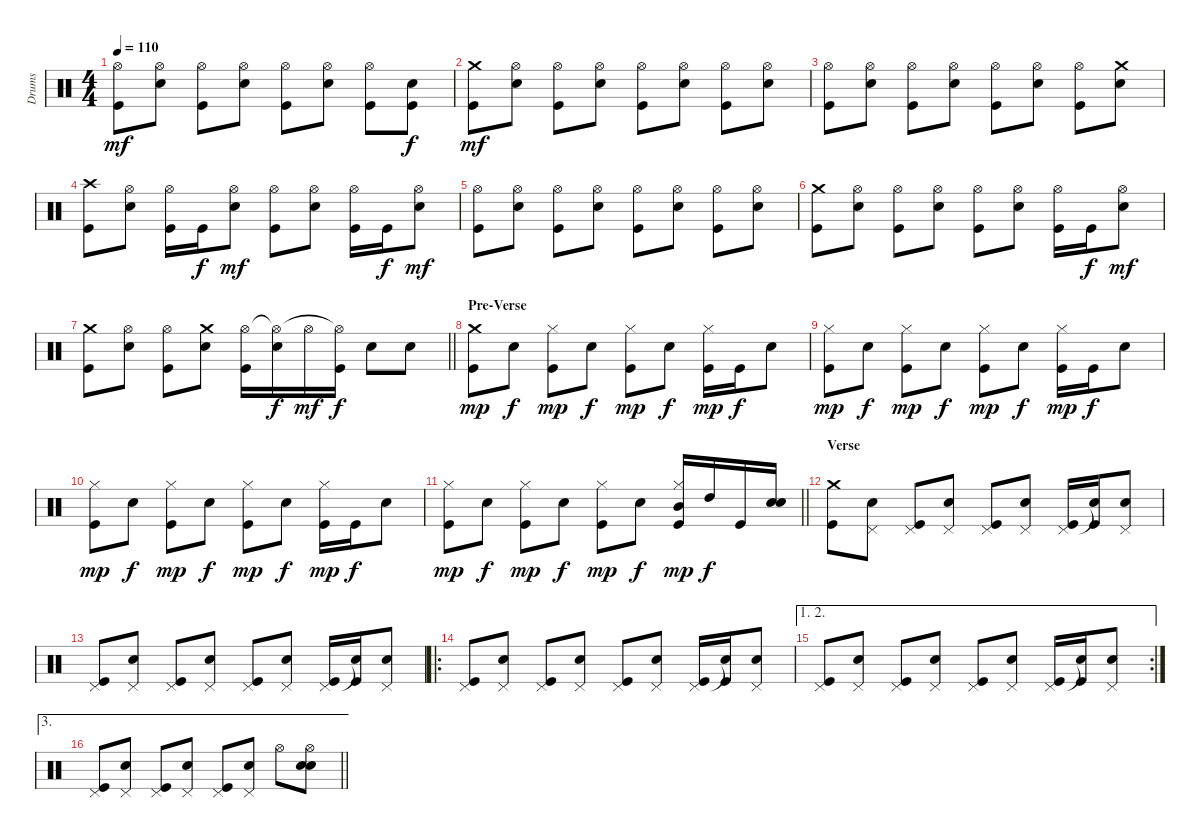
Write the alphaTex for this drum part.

\track ("Drums" "Drums") {instrument percussion}
\staff {score}
\articulation defaults
\ts (4 4)
\tempo 110
\clef neutral
\ks c
("Kick (hit)" "Hi-Hat (open)").8{dy mf} ("Electric Snare (hit)" "Hi-Hat (open)").8 ("Kick (hit)" "Hi-Hat (open)").8 ("Electric Snare (hit)" "Hi-Hat (open)").8 ("Kick (hit)" "Hi-Hat (open)").8 ("Electric Snare (hit)" "Hi-Hat (open)").8 ("Kick (hit)" "Hi-Hat (open)").8 ("Kick (hit)" "Electric Snare (hit)").8{dy f} |
("Kick (hit)" "Crash medium (hit)").8{dy mf} ("Electric Snare (hit)" "Hi-Hat (open)").8 ("Kick (hit)" "Hi-Hat (open)").8 ("Electric Snare (hit)" "Hi-Hat (open)").8 ("Kick (hit)" "Hi-Hat (open)").8 ("Electric Snare (hit)" "Hi-Hat (open)").8 ("Kick (hit)" "Hi-Hat (open)").8 ("Electric Snare (hit)" "Hi-Hat (open)").8 |
("Kick (hit)" "Hi-Hat (open)").8 ("Electric Snare (hit)" "Hi-Hat (open)").8 ("Kick (hit)" "Hi-Hat (open)").8 ("Electric Snare (hit)" "Hi-Hat (open)").8 ("Kick (hit)" "Hi-Hat (open)").8 ("Electric Snare (hit)" "Hi-Hat (open)").8 ("Kick (hit)" "Hi-Hat (open)").8 ("Electric Snare (hit)" "Crash medium (hit)").8 |
("Kick (hit)" "Crash high (hit)").8 ("Electric Snare (hit)" "Hi-Hat (open)").8 ("Kick (hit)" "Hi-Hat (open)").16 "Kick (hit)".16{dy f} ("Electric Snare (hit)" "Hi-Hat (open)").8{dy mf} ("Kick (hit)" "Hi-Hat (open)").8 ("Electric Snare (hit)" "Hi-Hat (open)").8 ("Kick (hit)" "Hi-Hat (open)").16 "Kick (hit)".16{dy f} ("Electric Snare (hit)" "Hi-Hat (open)").8{dy mf} |
("Kick (hit)" "Hi-Hat (open)").8 ("Electric Snare (hit)" "Hi-Hat (open)").8 ("Kick (hit)" "Hi-Hat (open)").8 ("Electric Snare (hit)" "Hi-Hat (open)").8 ("Kick (hit)" "Hi-Hat (open)").8 ("Electric Snare (hit)" "Hi-Hat (open)").8 ("Kick (hit)" "Hi-Hat (open)").8 ("Electric Snare (hit)" "Hi-Hat (open)").8 |
("Kick (hit)" "Crash medium (hit)").8 ("Electric Snare (hit)" "Hi-Hat (open)").8 ("Kick (hit)" "Hi-Hat (open)").8 ("Electric Snare (hit)" "Hi-Hat (open)").8 ("Kick (hit)" "Hi-Hat (open)").8 ("Electric Snare (hit)" "Hi-Hat (open)").8 ("Kick (hit)" "Hi-Hat (open)").16 "Kick (hit)".16{dy f} ("Electric Snare (hit)" "Hi-Hat (open)").8{dy mf} |
\barLineRight lightlight
("Kick (hit)" "Crash medium (hit)").8 ("Electric Snare (hit)" "Hi-Hat (open)").8 ("Kick (hit)" "Hi-Hat (open)").8 ("Electric Snare (hit)" "Crash medium (hit)").8 ("Kick (hit)" "Hi-Hat (open)").16 ("Electric Snare (hit)" "Hi-Hat (open)"{t}).16{dy f} "Hi-Hat (open)".16{dy mf} ("Kick (hit)" "Hi-Hat (open)"{t}).16{dy f} "Electric Snare (hit)".8 "Electric Snare (hit)".8 |
\section ("" "Pre-Verse")
("Kick (hit)" "Crash medium (hit)").8{dy mp} "Electric Snare (hit)".8{dy f} ("Kick (hit)" "Hi-Hat (closed)").8{dy mp} "Electric Snare (hit)".8{dy f} ("Kick (hit)" "Hi-Hat (closed)").8{dy mp} "Electric Snare (hit)".8{dy f} ("Kick (hit)" "Hi-Hat (closed)").16{dy mp} "Kick (hit)".16{dy f} "Electric Snare (hit)".8 |
("Kick (hit)" "Hi-Hat (closed)").8{dy mp} "Electric Snare (hit)".8{dy f} ("Kick (hit)" "Hi-Hat (closed)").8{dy mp} "Electric Snare (hit)".8{dy f} ("Kick (hit)" "Hi-Hat (closed)").8{dy mp} "Electric Snare (hit)".8{dy f} ("Kick (hit)" "Hi-Hat (closed)").16{dy mp} "Kick (hit)".16{dy f} "Electric Snare (hit)".8 |
("Kick (hit)" "Hi-Hat (closed)").8{dy mp} "Electric Snare (hit)".8{dy f} ("Kick (hit)" "Hi-Hat (closed)").8{dy mp} "Electric Snare (hit)".8{dy f} ("Kick (hit)" "Hi-Hat (closed)").8{dy mp} "Electric Snare (hit)".8{dy f} ("Kick (hit)" "Hi-Hat (closed)").16{dy mp} "Kick (hit)".16{dy f} "Electric Snare (hit)".8 |
\barLineRight lightlight
("Kick (hit)" "Hi-Hat (closed)").8{dy mp} "Electric Snare (hit)".8{dy f} ("Kick (hit)" "Hi-Hat (closed)").8{dy mp} "Electric Snare (hit)".8{dy f} ("Kick (hit)" "Hi-Hat (closed)").8{dy mp} "Electric Snare (hit)".8{dy f} ("Kick (hit)" "Mid Tom (hit)" "Hi-Hat (closed)").16{dy mp} "High Tom (hit)".16{dy f} "Kick (hit)".16 ("Snare (hit) 2" "Electric Snare (hit)").16 |
\section ("" "Verse")
("Kick (hit)" "Crash medium (hit)").8 ("Electric Snare (hit)" "Pedal Hi-Hat (hit)").8 ("Kick (hit)" "Pedal Hi-Hat (hit)").8 ("Electric Snare (hit)" "Pedal Hi-Hat (hit)").8 ("Kick (hit)" "Pedal Hi-Hat (hit)").8 ("Electric Snare (hit)" "Pedal Hi-Hat (hit)").8 ("Kick (hit)" "Pedal Hi-Hat (hit)").16 ("Kick (hit)" "Snare (hit)"{t}).16 ("Electric Snare (hit)" "Pedal Hi-Hat (hit)").8 |
("Kick (hit)" "Pedal Hi-Hat (hit)").8 ("Electric Snare (hit)" "Pedal Hi-Hat (hit)").8 ("Kick (hit)" "Pedal Hi-Hat (hit)").8 ("Electric Snare (hit)" "Pedal Hi-Hat (hit)").8 ("Kick (hit)" "Pedal Hi-Hat (hit)").8 ("Electric Snare (hit)" "Pedal Hi-Hat (hit)").8 ("Kick (hit)" "Pedal Hi-Hat (hit)").16 ("Kick (hit)" "Snare (hit)"{t}).16 ("Electric Snare (hit)" "Pedal Hi-Hat (hit)").8 |
\ro
("Kick (hit)" "Pedal Hi-Hat (hit)").8 ("Electric Snare (hit)" "Pedal Hi-Hat (hit)").8 ("Kick (hit)" "Pedal Hi-Hat (hit)").8 ("Electric Snare (hit)" "Pedal Hi-Hat (hit)").8 ("Kick (hit)" "Pedal Hi-Hat (hit)").8 ("Electric Snare (hit)" "Pedal Hi-Hat (hit)").8 ("Kick (hit)" "Pedal Hi-Hat (hit)").16 ("Kick (hit)" "Snare (hit)"{t}).16 ("Electric Snare (hit)" "Pedal Hi-Hat (hit)").8 |
\ae (1 2)
\rc 2
("Kick (hit)" "Pedal Hi-Hat (hit)").8 ("Electric Snare (hit)" "Pedal Hi-Hat (hit)").8 ("Kick (hit)" "Pedal Hi-Hat (hit)").8 ("Electric Snare (hit)" "Pedal Hi-Hat (hit)").8 ("Kick (hit)" "Pedal Hi-Hat (hit)").8 ("Electric Snare (hit)" "Pedal Hi-Hat (hit)").8 ("Kick (hit)" "Pedal Hi-Hat (hit)").16 ("Kick (hit)" "Snare (hit)"{t}).16 ("Electric Snare (hit)" "Pedal Hi-Hat (hit)").8 |
\ae 3
\barLineRight lightlight
("Kick (hit)" "Pedal Hi-Hat (hit)").8 ("Electric Snare (hit)" "Pedal Hi-Hat (hit)").8 ("Kick (hit)" "Pedal Hi-Hat (hit)").8 ("Electric Snare (hit)" "Pedal Hi-Hat (hit)").8 ("Kick (hit)" "Pedal Hi-Hat (hit)").8 ("Electric Snare (hit)" "Pedal Hi-Hat (hit)").8 "Hi-Hat (open)".8 ("Snare (hit) 2" "Electric Snare (hit)" "Hi-Hat (open)").8
